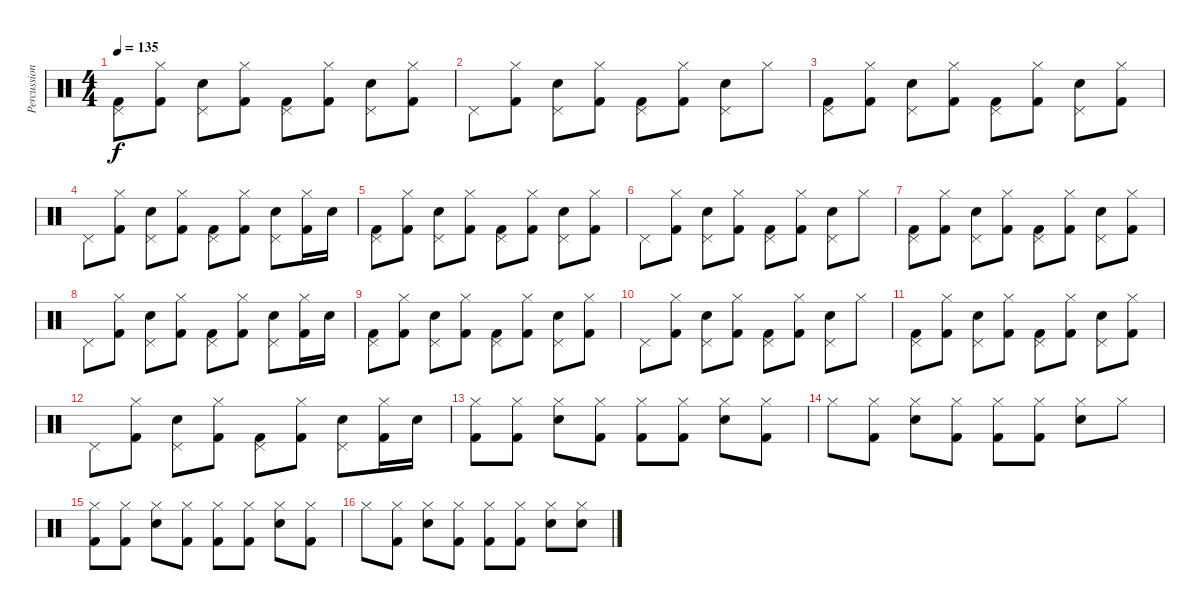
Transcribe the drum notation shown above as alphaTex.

\track ("Percussions" "Percussion") {instrument percussion}
\staff {score}
\articulation defaults
\ts (4 4)
\tempo 135
\clef neutral
\ks c
("Pedal Hi-Hat (hit)" "Kick (hit) 2").8{dy f} ("Hi-Hat (closed)" "Kick (hit) 2").8 ("Pedal Hi-Hat (hit)" "Electric Snare (hit)").8 ("Hi-Hat (closed)" "Kick (hit) 2").8 ("Pedal Hi-Hat (hit)" "Kick (hit) 2").8 ("Hi-Hat (closed)" "Kick (hit) 2").8 ("Pedal Hi-Hat (hit)" "Electric Snare (hit)").8 ("Hi-Hat (closed)" "Kick (hit) 2").8 |
"Pedal Hi-Hat (hit)".8 ("Hi-Hat (closed)" "Kick (hit) 2").8 ("Pedal Hi-Hat (hit)" "Electric Snare (hit)").8 ("Hi-Hat (closed)" "Kick (hit) 2").8 ("Pedal Hi-Hat (hit)" "Kick (hit) 2").8 ("Hi-Hat (closed)" "Kick (hit) 2").8 ("Pedal Hi-Hat (hit)" "Electric Snare (hit)").8 "Hi-Hat (closed)".8 |
("Pedal Hi-Hat (hit)" "Kick (hit) 2").8 ("Hi-Hat (closed)" "Kick (hit) 2").8 ("Pedal Hi-Hat (hit)" "Electric Snare (hit)").8 ("Hi-Hat (closed)" "Kick (hit) 2").8 ("Pedal Hi-Hat (hit)" "Kick (hit) 2").8 ("Hi-Hat (closed)" "Kick (hit) 2").8 ("Pedal Hi-Hat (hit)" "Electric Snare (hit)").8 ("Hi-Hat (closed)" "Kick (hit) 2").8 |
"Pedal Hi-Hat (hit)".8 ("Hi-Hat (closed)" "Kick (hit) 2").8 ("Pedal Hi-Hat (hit)" "Electric Snare (hit)").8 ("Hi-Hat (closed)" "Kick (hit) 2").8 ("Pedal Hi-Hat (hit)" "Kick (hit) 2").8 ("Hi-Hat (closed)" "Kick (hit) 2").8 ("Pedal Hi-Hat (hit)" "Electric Snare (hit)").8 ("Hi-Hat (closed)" "Kick (hit) 2").16 "Electric Snare (hit)".16 |
("Pedal Hi-Hat (hit)" "Kick (hit) 2").8 ("Hi-Hat (closed)" "Kick (hit) 2").8 ("Pedal Hi-Hat (hit)" "Electric Snare (hit)").8 ("Hi-Hat (closed)" "Kick (hit) 2").8 ("Pedal Hi-Hat (hit)" "Kick (hit) 2").8 ("Hi-Hat (closed)" "Kick (hit) 2").8 ("Pedal Hi-Hat (hit)" "Electric Snare (hit)").8 ("Hi-Hat (closed)" "Kick (hit) 2").8 |
"Pedal Hi-Hat (hit)".8 ("Hi-Hat (closed)" "Kick (hit) 2").8 ("Pedal Hi-Hat (hit)" "Electric Snare (hit)").8 ("Hi-Hat (closed)" "Kick (hit) 2").8 ("Pedal Hi-Hat (hit)" "Kick (hit) 2").8 ("Hi-Hat (closed)" "Kick (hit) 2").8 ("Pedal Hi-Hat (hit)" "Electric Snare (hit)").8 "Hi-Hat (closed)".8 |
("Pedal Hi-Hat (hit)" "Kick (hit) 2").8 ("Hi-Hat (closed)" "Kick (hit) 2").8 ("Pedal Hi-Hat (hit)" "Electric Snare (hit)").8 ("Hi-Hat (closed)" "Kick (hit) 2").8 ("Pedal Hi-Hat (hit)" "Kick (hit) 2").8 ("Hi-Hat (closed)" "Kick (hit) 2").8 ("Pedal Hi-Hat (hit)" "Electric Snare (hit)").8 ("Hi-Hat (closed)" "Kick (hit) 2").8 |
"Pedal Hi-Hat (hit)".8 ("Hi-Hat (closed)" "Kick (hit) 2").8 ("Pedal Hi-Hat (hit)" "Electric Snare (hit)").8 ("Hi-Hat (closed)" "Kick (hit) 2").8 ("Pedal Hi-Hat (hit)" "Kick (hit) 2").8 ("Hi-Hat (closed)" "Kick (hit) 2").8 ("Pedal Hi-Hat (hit)" "Electric Snare (hit)").8 ("Hi-Hat (closed)" "Kick (hit) 2").16 "Electric Snare (hit)".16 |
("Pedal Hi-Hat (hit)" "Kick (hit) 2").8 ("Hi-Hat (closed)" "Kick (hit) 2").8 ("Pedal Hi-Hat (hit)" "Electric Snare (hit)").8 ("Hi-Hat (closed)" "Kick (hit) 2").8 ("Pedal Hi-Hat (hit)" "Kick (hit) 2").8 ("Hi-Hat (closed)" "Kick (hit) 2").8 ("Pedal Hi-Hat (hit)" "Electric Snare (hit)").8 ("Hi-Hat (closed)" "Kick (hit) 2").8 |
"Pedal Hi-Hat (hit)".8 ("Hi-Hat (closed)" "Kick (hit) 2").8 ("Pedal Hi-Hat (hit)" "Electric Snare (hit)").8 ("Hi-Hat (closed)" "Kick (hit) 2").8 ("Pedal Hi-Hat (hit)" "Kick (hit) 2").8 ("Hi-Hat (closed)" "Kick (hit) 2").8 ("Pedal Hi-Hat (hit)" "Electric Snare (hit)").8 "Hi-Hat (closed)".8 |
("Pedal Hi-Hat (hit)" "Kick (hit) 2").8 ("Hi-Hat (closed)" "Kick (hit) 2").8 ("Pedal Hi-Hat (hit)" "Electric Snare (hit)").8 ("Hi-Hat (closed)" "Kick (hit) 2").8 ("Pedal Hi-Hat (hit)" "Kick (hit) 2").8 ("Hi-Hat (closed)" "Kick (hit) 2").8 ("Pedal Hi-Hat (hit)" "Electric Snare (hit)").8 ("Hi-Hat (closed)" "Kick (hit) 2").8 |
"Pedal Hi-Hat (hit)".8 ("Hi-Hat (closed)" "Kick (hit) 2").8 ("Pedal Hi-Hat (hit)" "Electric Snare (hit)").8 ("Hi-Hat (closed)" "Kick (hit) 2").8 ("Pedal Hi-Hat (hit)" "Kick (hit) 2").8 ("Hi-Hat (closed)" "Kick (hit) 2").8 ("Pedal Hi-Hat (hit)" "Electric Snare (hit)").8 ("Hi-Hat (closed)" "Kick (hit) 2").16 "Electric Snare (hit)".16 |
("Hi-Hat (closed)" "Kick (hit) 2").8 ("Hi-Hat (closed)" "Kick (hit) 2").8 ("Hi-Hat (closed)" "Electric Snare (hit)").8 ("Hi-Hat (closed)" "Kick (hit) 2").8 ("Hi-Hat (closed)" "Kick (hit) 2").8 ("Hi-Hat (closed)" "Kick (hit) 2").8 ("Hi-Hat (closed)" "Electric Snare (hit)").8 ("Hi-Hat (closed)" "Kick (hit) 2").8 |
"Hi-Hat (closed)".8 ("Hi-Hat (closed)" "Kick (hit) 2").8 ("Hi-Hat (closed)" "Electric Snare (hit)").8 ("Hi-Hat (closed)" "Kick (hit) 2").8 ("Hi-Hat (closed)" "Kick (hit) 2").8 ("Hi-Hat (closed)" "Kick (hit) 2").8 ("Hi-Hat (closed)" "Electric Snare (hit)").8 "Hi-Hat (closed)".8 |
("Hi-Hat (closed)" "Kick (hit) 2").8 ("Hi-Hat (closed)" "Kick (hit) 2").8 ("Hi-Hat (closed)" "Electric Snare (hit)").8 ("Hi-Hat (closed)" "Kick (hit) 2").8 ("Hi-Hat (closed)" "Kick (hit) 2").8 ("Hi-Hat (closed)" "Kick (hit) 2").8 ("Hi-Hat (closed)" "Electric Snare (hit)").8 ("Hi-Hat (closed)" "Kick (hit) 2").8 |
"Hi-Hat (closed)".8 ("Hi-Hat (closed)" "Kick (hit) 2").8 ("Hi-Hat (closed)" "Electric Snare (hit)").8 ("Hi-Hat (closed)" "Kick (hit) 2").8 ("Hi-Hat (closed)" "Kick (hit) 2").8 ("Hi-Hat (closed)" "Kick (hit) 2").8 ("Hi-Hat (closed)" "Electric Snare (hit)").8 ("Hi-Hat (closed)" "Electric Snare (hit)").8
